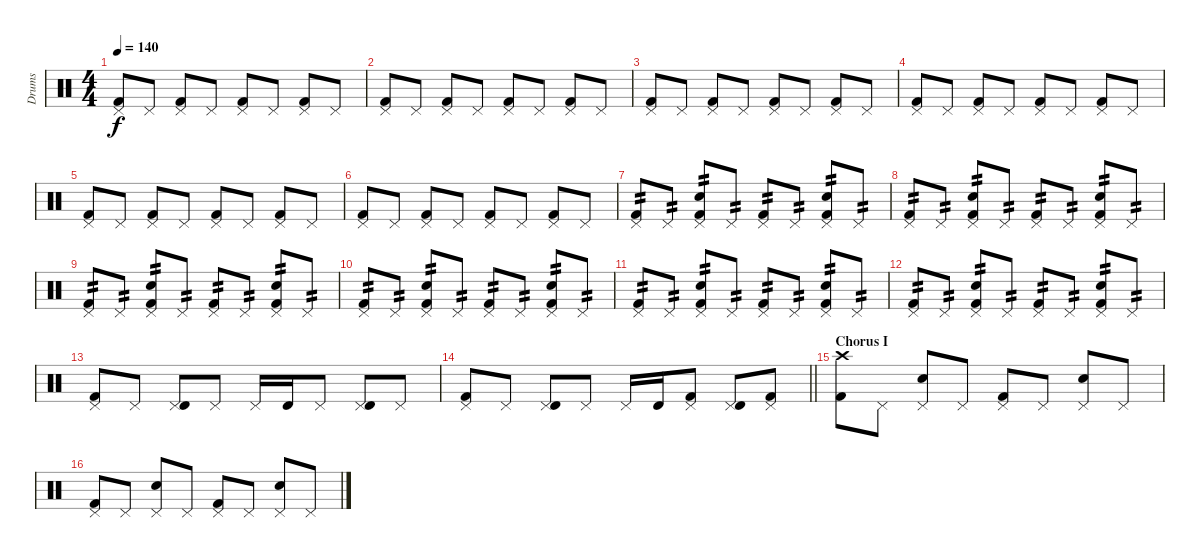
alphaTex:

\track ("Drums" "Drums") {instrument percussion}
\staff {score}
\articulation defaults
\ts (4 4)
\tempo 140
\clef neutral
\ks c
("Pedal Hi-Hat (hit)" "Kick (hit) 2").8{dy f} "Pedal Hi-Hat (hit)".8 ("Pedal Hi-Hat (hit)" "Kick (hit) 2").8 "Pedal Hi-Hat (hit)".8 ("Pedal Hi-Hat (hit)" "Kick (hit) 2").8 "Pedal Hi-Hat (hit)".8 ("Pedal Hi-Hat (hit)" "Kick (hit) 2").8 "Pedal Hi-Hat (hit)".8 |
("Pedal Hi-Hat (hit)" "Kick (hit) 2").8 "Pedal Hi-Hat (hit)".8 ("Pedal Hi-Hat (hit)" "Kick (hit) 2").8 "Pedal Hi-Hat (hit)".8 ("Pedal Hi-Hat (hit)" "Kick (hit) 2").8 "Pedal Hi-Hat (hit)".8 ("Pedal Hi-Hat (hit)" "Kick (hit) 2").8 "Pedal Hi-Hat (hit)".8 |
("Pedal Hi-Hat (hit)" "Kick (hit) 2").8 "Pedal Hi-Hat (hit)".8 ("Pedal Hi-Hat (hit)" "Kick (hit) 2").8 "Pedal Hi-Hat (hit)".8 ("Pedal Hi-Hat (hit)" "Kick (hit) 2").8 "Pedal Hi-Hat (hit)".8 ("Pedal Hi-Hat (hit)" "Kick (hit) 2").8 "Pedal Hi-Hat (hit)".8 |
("Pedal Hi-Hat (hit)" "Kick (hit) 2").8 "Pedal Hi-Hat (hit)".8 ("Pedal Hi-Hat (hit)" "Kick (hit) 2").8 "Pedal Hi-Hat (hit)".8 ("Pedal Hi-Hat (hit)" "Kick (hit) 2").8 "Pedal Hi-Hat (hit)".8 ("Pedal Hi-Hat (hit)" "Kick (hit) 2").8 "Pedal Hi-Hat (hit)".8 |
("Pedal Hi-Hat (hit)" "Kick (hit) 2").8 "Pedal Hi-Hat (hit)".8 ("Pedal Hi-Hat (hit)" "Kick (hit) 2").8 "Pedal Hi-Hat (hit)".8 ("Pedal Hi-Hat (hit)" "Kick (hit) 2").8 "Pedal Hi-Hat (hit)".8 ("Pedal Hi-Hat (hit)" "Kick (hit) 2").8 "Pedal Hi-Hat (hit)".8 |
("Pedal Hi-Hat (hit)" "Kick (hit) 2").8 "Pedal Hi-Hat (hit)".8 ("Pedal Hi-Hat (hit)" "Kick (hit) 2").8 "Pedal Hi-Hat (hit)".8 ("Pedal Hi-Hat (hit)" "Kick (hit) 2").8 "Pedal Hi-Hat (hit)".8 ("Pedal Hi-Hat (hit)" "Kick (hit) 2").8 "Pedal Hi-Hat (hit)".8 |
("Pedal Hi-Hat (hit)" "Kick (hit) 2").8{tp 2} "Pedal Hi-Hat (hit)".8{tp 2} ("Pedal Hi-Hat (hit)" "Hand Clap (hit)" "Kick (hit) 2").8{tp 2} "Pedal Hi-Hat (hit)".8{tp 2} ("Pedal Hi-Hat (hit)" "Kick (hit) 2").8{tp 2} "Pedal Hi-Hat (hit)".8{tp 2} ("Pedal Hi-Hat (hit)" "Hand Clap (hit)" "Kick (hit) 2").8{tp 2} "Pedal Hi-Hat (hit)".8{tp 2} |
("Pedal Hi-Hat (hit)" "Kick (hit) 2").8{tp 2} "Pedal Hi-Hat (hit)".8{tp 2} ("Pedal Hi-Hat (hit)" "Hand Clap (hit)" "Kick (hit) 2").8{tp 2} "Pedal Hi-Hat (hit)".8{tp 2} ("Pedal Hi-Hat (hit)" "Kick (hit) 2").8{tp 2} "Pedal Hi-Hat (hit)".8{tp 2} ("Pedal Hi-Hat (hit)" "Hand Clap (hit)" "Kick (hit) 2").8{tp 2} "Pedal Hi-Hat (hit)".8{tp 2} |
("Pedal Hi-Hat (hit)" "Kick (hit) 2").8{tp 2} "Pedal Hi-Hat (hit)".8{tp 2} ("Pedal Hi-Hat (hit)" "Hand Clap (hit)" "Kick (hit) 2").8{tp 2} "Pedal Hi-Hat (hit)".8{tp 2} ("Pedal Hi-Hat (hit)" "Kick (hit) 2").8{tp 2} "Pedal Hi-Hat (hit)".8{tp 2} ("Pedal Hi-Hat (hit)" "Hand Clap (hit)" "Kick (hit) 2").8{tp 2} "Pedal Hi-Hat (hit)".8{tp 2} |
("Pedal Hi-Hat (hit)" "Kick (hit) 2").8{tp 2} "Pedal Hi-Hat (hit)".8{tp 2} ("Pedal Hi-Hat (hit)" "Hand Clap (hit)" "Kick (hit) 2").8{tp 2} "Pedal Hi-Hat (hit)".8{tp 2} ("Pedal Hi-Hat (hit)" "Kick (hit) 2").8{tp 2} "Pedal Hi-Hat (hit)".8{tp 2} ("Pedal Hi-Hat (hit)" "Hand Clap (hit)" "Kick (hit) 2").8{tp 2} "Pedal Hi-Hat (hit)".8{tp 2} |
("Pedal Hi-Hat (hit)" "Kick (hit) 2").8{tp 2} "Pedal Hi-Hat (hit)".8{tp 2} ("Pedal Hi-Hat (hit)" "Hand Clap (hit)" "Kick (hit) 2").8{tp 2} "Pedal Hi-Hat (hit)".8{tp 2} ("Pedal Hi-Hat (hit)" "Kick (hit) 2").8{tp 2} "Pedal Hi-Hat (hit)".8{tp 2} ("Pedal Hi-Hat (hit)" "Hand Clap (hit)" "Kick (hit) 2").8{tp 2} "Pedal Hi-Hat (hit)".8{tp 2} |
("Pedal Hi-Hat (hit)" "Kick (hit) 2").8{tp 2} "Pedal Hi-Hat (hit)".8{tp 2} ("Pedal Hi-Hat (hit)" "Hand Clap (hit)" "Kick (hit) 2").8{tp 2} "Pedal Hi-Hat (hit)".8{tp 2} ("Pedal Hi-Hat (hit)" "Kick (hit) 2").8{tp 2} "Pedal Hi-Hat (hit)".8{tp 2} ("Pedal Hi-Hat (hit)" "Hand Clap (hit)" "Kick (hit) 2").8{tp 2} "Pedal Hi-Hat (hit)".8{tp 2} |
("Pedal Hi-Hat (hit)" "Kick (hit) 2").8 "Pedal Hi-Hat (hit)".8 ("Pedal Hi-Hat (hit)" "Timbale high (hit)").8 "Pedal Hi-Hat (hit)".8 "Pedal Hi-Hat (hit)".16 "Timbale high (hit)".16 "Pedal Hi-Hat (hit)".8 ("Pedal Hi-Hat (hit)" "Timbale high (hit)").8 "Pedal Hi-Hat (hit)".8 |
\barLineRight lightlight
("Pedal Hi-Hat (hit)" "Kick (hit) 2").8 "Pedal Hi-Hat (hit)".8 ("Pedal Hi-Hat (hit)" "Timbale high (hit)").8 "Pedal Hi-Hat (hit)".8 "Pedal Hi-Hat (hit)".16 "Timbale high (hit)".16 ("Pedal Hi-Hat (hit)" "Kick (hit) 2").8 ("Pedal Hi-Hat (hit)" "Timbale high (hit)").8 ("Pedal Hi-Hat (hit)" "Kick (hit) 2").8 |
\section ("" "Chorus I")
("Crash high (hit)" "Kick (hit) 2").8 "Pedal Hi-Hat (hit)".8 ("Pedal Hi-Hat (hit)" "Snare (hit) 2").8 "Pedal Hi-Hat (hit)".8 ("Pedal Hi-Hat (hit)" "Kick (hit) 2").8 "Pedal Hi-Hat (hit)".8 ("Pedal Hi-Hat (hit)" "Snare (hit) 2").8 "Pedal Hi-Hat (hit)".8 |
("Pedal Hi-Hat (hit)" "Kick (hit) 2").8 "Pedal Hi-Hat (hit)".8 ("Pedal Hi-Hat (hit)" "Snare (hit) 2").8 "Pedal Hi-Hat (hit)".8 ("Pedal Hi-Hat (hit)" "Kick (hit) 2").8 "Pedal Hi-Hat (hit)".8 ("Pedal Hi-Hat (hit)" "Snare (hit) 2").8 "Pedal Hi-Hat (hit)".8
